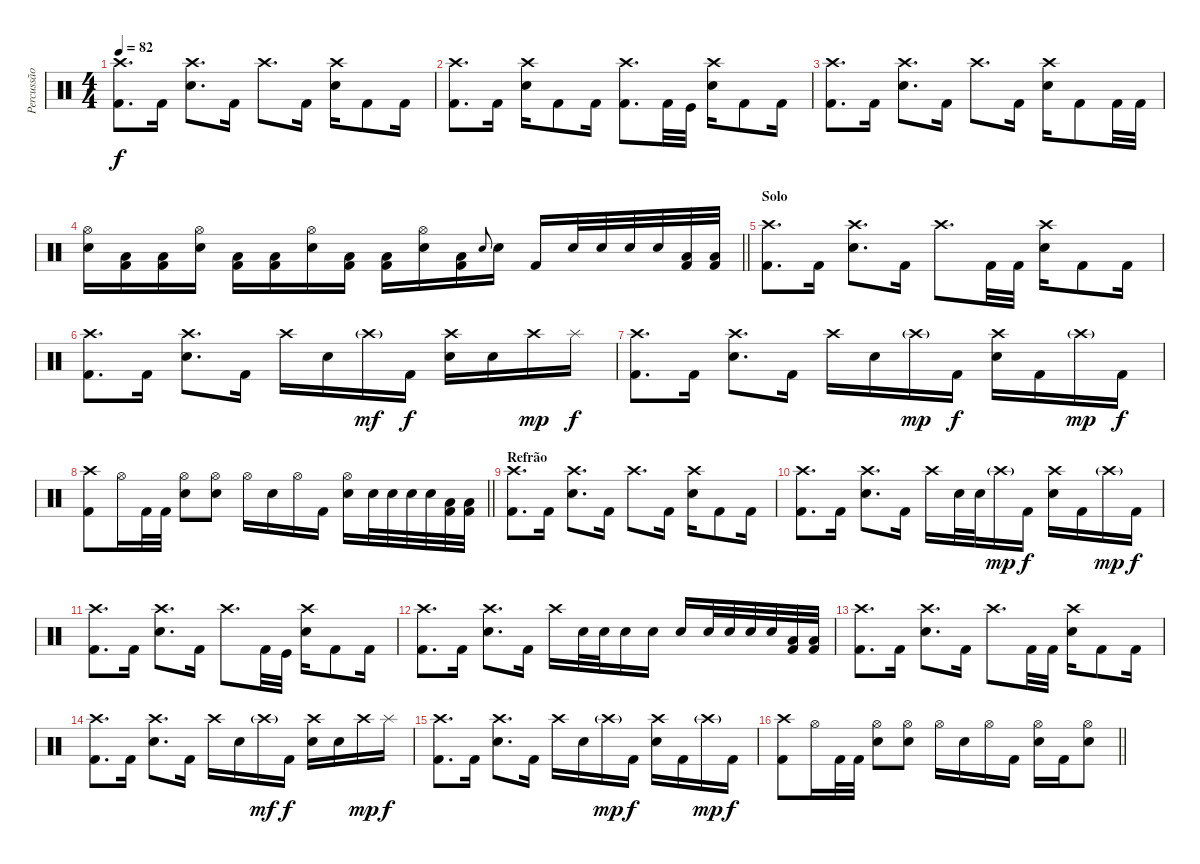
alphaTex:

\track ("Percussão" "Percussão") {instrument percussion}
\staff {score}
\articulation defaults
\ts (4 4)
\tempo 82
\clef neutral
\ks c
("Kick (hit) 2" "Crash high (hit)").8{d dy f} "Kick (hit) 2".16 ("Electric Snare (hit)" "Crash high (hit)").8{d} "Kick (hit) 2".16 "Crash high (hit)".8{d} "Kick (hit) 2".16 ("Electric Snare (hit)" "Crash high (hit)").16 "Kick (hit) 2".8 "Kick (hit) 2".16 |
("Kick (hit) 2" "Crash high (hit)").8{d} "Kick (hit) 2".16 ("Electric Snare (hit)" "Crash high (hit)").16 "Kick (hit) 2".8 "Kick (hit) 2".16 ("Crash high (hit)" "Kick (hit) 2").8{d} "Kick (hit) 2".32 "Kick (hit)".32 ("Electric Snare (hit)" "Crash high (hit)").16 "Kick (hit) 2".8 "Kick (hit) 2".16 |
("Kick (hit) 2" "Crash high (hit)").8{d} "Kick (hit) 2".16 ("Electric Snare (hit)" "Crash high (hit)").8{d} "Kick (hit) 2".16 "Crash high (hit)".8{d} "Kick (hit) 2".16 ("Electric Snare (hit)" "Crash high (hit)").16 "Kick (hit) 2".8 "Kick (hit) 2".32 "Kick (hit) 2".32 |
\barLineRight lightlight
("Hi-Hat (open)" "Electric Snare (hit)").16 ("Kick (hit) 2" "Low Tom (hit)").16 ("Kick (hit) 2" "Low Tom (hit)").16 ("Electric Snare (hit)" "Hi-Hat (open)").16 ("Kick (hit) 2" "Low Tom (hit)").16 ("Kick (hit) 2" "Low Tom (hit)").16 ("Hi-Hat (open)" "Electric Snare (hit)").16 ("Kick (hit) 2" "Low Tom (hit)").16 ("Kick (hit) 2" "Low Tom (hit)").16 ("Hi-Hat (open)" "Electric Snare (hit)").16 ("Kick (hit) 2" "Low Tom (hit)").16 "Electric Snare (hit)".8{gr onbeat} "Electric Snare (hit)".16 "Kick (hit) 2".16 "Electric Snare (hit)".32 "Electric Snare (hit)".32 "Electric Snare (hit)".32 "Electric Snare (hit)".32 ("Low Tom (hit)" "Kick (hit) 2").32 ("Low Tom (hit)" "Kick (hit) 2").32 |
\section ("" "Solo")
("Kick (hit) 2" "Crash high (hit)").8{d} "Kick (hit) 2".16 ("Electric Snare (hit)" "Crash high (hit)").8{d} "Kick (hit) 2".16 "Crash high (hit)".8{d} "Kick (hit) 2".32 "Kick (hit) 2".32 ("Electric Snare (hit)" "Crash high (hit)").16 "Kick (hit) 2".8 "Kick (hit) 2".16 |
("Kick (hit) 2" "Crash high (hit)").8{d} "Kick (hit) 2".16 ("Electric Snare (hit)" "Crash high (hit)").8{d} "Kick (hit) 2".16 "Crash high (hit)".16 "Electric Snare (hit)".16 "Crash high (hit)"{g}.16{dy mf} "Kick (hit) 2".16{dy f} ("Crash high (hit)" "Electric Snare (hit)").16 "Electric Snare (hit)".16 "Crash high (hit)".16{dy mp} "Splash (hit)".16{dy f} |
("Kick (hit) 2" "Crash high (hit)").8{d} "Kick (hit) 2".16 ("Electric Snare (hit)" "Crash high (hit)").8{d} "Kick (hit) 2".16 "Crash high (hit)".16 "Electric Snare (hit)".16 "Crash high (hit)"{g}.16{dy mp} "Kick (hit) 2".16{dy f} ("Crash high (hit)" "Electric Snare (hit)").16 "Kick (hit) 2".16 "Crash high (hit)"{g}.16{dy mp} "Kick (hit) 2".16{dy f} |
\barLineRight lightlight
("Crash high (hit)" "Kick (hit) 2").8 "Hi-Hat (open)".16 "Kick (hit) 2".32 "Kick (hit) 2".32 ("Hi-Hat (open)" "Electric Snare (hit)").8 ("Electric Snare (hit)" "Hi-Hat (open)").8 "Hi-Hat (open)".16 "Electric Snare (hit)".16 "Hi-Hat (open)".16 "Kick (hit) 2".16 ("Hi-Hat (open)" "Electric Snare (hit)").16 "Electric Snare (hit)".32 "Electric Snare (hit)".32 "Electric Snare (hit)".32 "Electric Snare (hit)".32 ("Low Tom (hit)" "Kick (hit) 2").32 ("Low Tom (hit)" "Kick (hit) 2").32 |
\section ("" "Refrão")
("Kick (hit) 2" "Crash high (hit)").8{d} "Kick (hit) 2".16 ("Electric Snare (hit)" "Crash high (hit)").8{d} "Kick (hit) 2".16 "Crash high (hit)".8{d} "Kick (hit) 2".16 ("Electric Snare (hit)" "Crash high (hit)").16 "Kick (hit) 2".8 "Kick (hit) 2".16 |
("Kick (hit) 2" "Crash high (hit)").8{d} "Kick (hit) 2".16 ("Electric Snare (hit)" "Crash high (hit)").8{d} "Kick (hit) 2".16 "Crash high (hit)".16 "Electric Snare (hit)".32 "Electric Snare (hit)".32 "Crash high (hit)"{g}.16{dy mp} "Kick (hit) 2".16{dy f} ("Crash high (hit)" "Electric Snare (hit)").16 "Kick (hit) 2".16 "Crash high (hit)"{g}.16{dy mp} "Kick (hit) 2".16{dy f} |
("Kick (hit) 2" "Crash high (hit)").8{d} "Kick (hit) 2".16 ("Electric Snare (hit)" "Crash high (hit)").8{d} "Kick (hit) 2".16 "Crash high (hit)".8{d} "Kick (hit) 2".32 "Kick (hit)".32 ("Electric Snare (hit)" "Crash high (hit)").16 "Kick (hit) 2".8 "Kick (hit) 2".16 |
("Kick (hit) 2" "Crash high (hit)").8{d} "Kick (hit) 2".16 ("Electric Snare (hit)" "Crash high (hit)").8{d} "Kick (hit) 2".16 "Crash high (hit)".16 "Electric Snare (hit)".32 "Electric Snare (hit)".32 "Electric Snare (hit)".16 "Electric Snare (hit)".16 "Electric Snare (hit)".16 "Electric Snare (hit)".32 "Electric Snare (hit)".32 "Electric Snare (hit)".32 "Electric Snare (hit)".32 ("Low Tom (hit)" "Kick (hit) 2").32 ("Low Tom (hit)" "Kick (hit) 2").32 |
("Kick (hit) 2" "Crash high (hit)").8{d} "Kick (hit) 2".16 ("Electric Snare (hit)" "Crash high (hit)").8{d} "Kick (hit) 2".16 "Crash high (hit)".8{d} "Kick (hit) 2".32 "Kick (hit) 2".32 ("Electric Snare (hit)" "Crash high (hit)").16 "Kick (hit) 2".8 "Kick (hit) 2".16 |
("Kick (hit) 2" "Crash high (hit)").8{d} "Kick (hit) 2".16 ("Electric Snare (hit)" "Crash high (hit)").8{d} "Kick (hit) 2".16 "Crash high (hit)".16 "Electric Snare (hit)".16 "Crash high (hit)"{g}.16{dy mf} "Kick (hit) 2".16{dy f} ("Crash high (hit)" "Electric Snare (hit)").16 "Electric Snare (hit)".16 "Crash high (hit)".16{dy mp} "Splash (hit)".16{dy f} |
("Kick (hit) 2" "Crash high (hit)").8{d} "Kick (hit) 2".16 ("Electric Snare (hit)" "Crash high (hit)").8{d} "Kick (hit) 2".16 "Crash high (hit)".16 "Electric Snare (hit)".16 "Crash high (hit)"{g}.16{dy mp} "Kick (hit) 2".16{dy f} ("Crash high (hit)" "Electric Snare (hit)").16 "Kick (hit) 2".16 "Crash high (hit)"{g}.16{dy mp} "Kick (hit) 2".16{dy f} |
\barLineRight lightlight
("Crash high (hit)" "Kick (hit) 2").8 "Hi-Hat (open)".16 "Kick (hit) 2".32 "Kick (hit) 2".32 ("Hi-Hat (open)" "Electric Snare (hit)").8 ("Electric Snare (hit)" "Hi-Hat (open)").8 "Hi-Hat (open)".16 "Electric Snare (hit)".16 "Hi-Hat (open)".16 "Kick (hit) 2".16 ("Hi-Hat (open)" "Electric Snare (hit)").16 "Kick (hit) 2".16 ("Electric Snare (hit)" "Hi-Hat (open)").8
